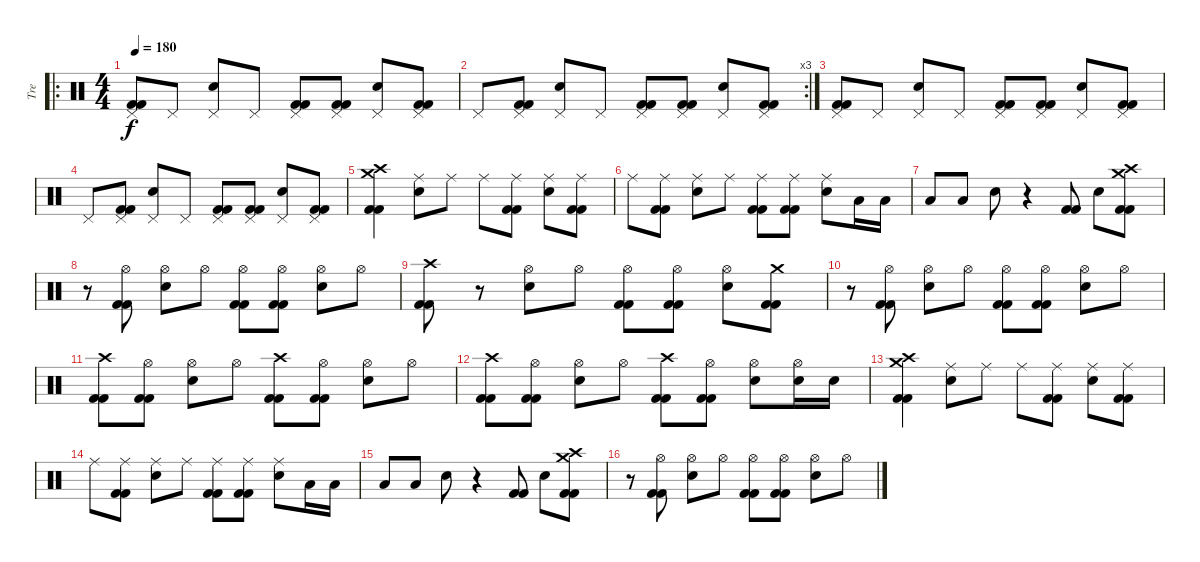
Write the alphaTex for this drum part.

\track ("Tre" "Tre") {instrument percussion}
\staff {score}
\articulation defaults
\ro
\ts (4 4)
\tempo 180
\clef neutral
\ks c
("Pedal Hi-Hat (hit)" "Kick (hit) 2" "Kick (hit) 2").8{dy f} "Pedal Hi-Hat (hit)".8 ("Pedal Hi-Hat (hit)" "Snare (hit) 2").8 "Pedal Hi-Hat (hit)".8 ("Pedal Hi-Hat (hit)" "Kick (hit) 2" "Kick (hit) 2").8 ("Pedal Hi-Hat (hit)" "Kick (hit) 2" "Kick (hit) 2").8 ("Pedal Hi-Hat (hit)" "Snare (hit) 2").8 ("Pedal Hi-Hat (hit)" "Kick (hit) 2" "Kick (hit) 2").8 |
\rc 3 "Pedal Hi-Hat (hit)".8
("Pedal Hi-Hat (hit)" "Kick (hit) 2" "Kick (hit) 2").8 ("Pedal Hi-Hat (hit)" "Snare (hit) 2").8 "Pedal Hi-Hat (hit)".8 ("Pedal Hi-Hat (hit)" "Kick (hit) 2" "Kick (hit) 2").8 ("Pedal Hi-Hat (hit)" "Kick (hit) 2" "Kick (hit) 2").8 ("Pedal Hi-Hat (hit)" "Snare (hit) 2").8 ("Pedal Hi-Hat (hit)" "Kick (hit) 2" "Kick (hit) 2").8 |
("Pedal Hi-Hat (hit)" "Kick (hit) 2" "Kick (hit) 2").8 "Pedal Hi-Hat (hit)".8 ("Pedal Hi-Hat (hit)" "Snare (hit) 2").8 "Pedal Hi-Hat (hit)".8 ("Pedal Hi-Hat (hit)" "Kick (hit) 2" "Kick (hit) 2").8 ("Pedal Hi-Hat (hit)" "Kick (hit) 2" "Kick (hit) 2").8 ("Pedal Hi-Hat (hit)" "Snare (hit) 2").8 ("Pedal Hi-Hat (hit)" "Kick (hit) 2" "Kick (hit) 2").8 |
"Pedal Hi-Hat (hit)".8 ("Pedal Hi-Hat (hit)" "Kick (hit) 2" "Kick (hit) 2").8 ("Pedal Hi-Hat (hit)" "Snare (hit) 2").8 "Pedal Hi-Hat (hit)".8 ("Pedal Hi-Hat (hit)" "Kick (hit) 2" "Kick (hit) 2").8 ("Pedal Hi-Hat (hit)" "Kick (hit) 2" "Kick (hit) 2").8 ("Pedal Hi-Hat (hit)" "Snare (hit) 2").8 ("Pedal Hi-Hat (hit)" "Kick (hit) 2" "Kick (hit) 2").8 |
("Crash high (hit)" "Crash medium (hit)" "Kick (hit) 2" "Kick (hit) 2").4 ("Ride (middle)" "Snare (hit) 2").8 "Ride (middle)".8 "Ride (middle)".8 ("Ride (middle)" "Kick (hit) 2" "Kick (hit) 2").8 ("Ride (middle)" "Snare (hit) 2").8 ("Ride (middle)" "Kick (hit) 2" "Kick (hit) 2").8 |
"Ride (middle)".8 ("Ride (middle)" "Kick (hit) 2" "Kick (hit) 2").8 ("Ride (middle)" "Snare (hit) 2").8 "Ride (middle)".8 ("Ride (middle)" "Kick (hit) 2" "Kick (hit) 2").8 ("Ride (middle)" "Kick (hit) 2" "Kick (hit) 2").8 ("Ride (middle)" "Snare (hit) 2").8 "Low Tom (hit)".16 "Low Tom (hit)".16 |
"Low Tom (hit)".8 "Low Tom (hit)".8 "Snare (hit) 2".8 r.4 ("Kick (hit) 2" "Kick (hit) 2").8 "Snare (hit) 2".8 ("Crash high (hit)" "Crash medium (hit)" "Kick (hit) 2" "Kick (hit) 2").8 |
r.8 ("Hi-Hat (open)" "Kick (hit) 2" "Kick (hit) 2").8 ("Hi-Hat (open)" "Snare (hit) 2").8 "Hi-Hat (open)".8 ("Hi-Hat (open)" "Kick (hit) 2" "Kick (hit) 2").8 ("Hi-Hat (open)" "Kick (hit) 2" "Kick (hit) 2").8 ("Hi-Hat (open)" "Snare (hit) 2").8 "Hi-Hat (open)".8 |
("Crash high (hit)" "Kick (hit) 2" "Kick (hit) 2").8 r.8 ("Hi-Hat (open)" "Snare (hit) 2").8 "Hi-Hat (open)".8 ("Hi-Hat (open)" "Kick (hit) 2" "Kick (hit) 2").8 ("Hi-Hat (open)" "Kick (hit) 2" "Kick (hit) 2").8 ("Hi-Hat (open)" "Snare (hit) 2").8 ("Crash medium (hit)" "Kick (hit) 2" "Kick (hit) 2").8 |
r.8 ("Hi-Hat (open)" "Kick (hit) 2" "Kick (hit) 2").8 ("Hi-Hat (open)" "Snare (hit) 2").8 "Hi-Hat (open)".8 ("Hi-Hat (open)" "Kick (hit) 2" "Kick (hit) 2").8 ("Hi-Hat (open)" "Kick (hit) 2" "Kick (hit) 2").8 ("Hi-Hat (open)" "Snare (hit) 2").8 "Hi-Hat (open)".8 |
("Crash high (hit)" "Kick (hit) 2" "Kick (hit) 2").8 ("Hi-Hat (open)" "Kick (hit) 2" "Kick (hit) 2").8 ("Hi-Hat (open)" "Snare (hit) 2").8 "Hi-Hat (open)".8 ("Crash high (hit)" "Kick (hit) 2" "Kick (hit) 2").8 ("Hi-Hat (open)" "Kick (hit) 2" "Kick (hit) 2").8 ("Hi-Hat (open)" "Snare (hit) 2").8 "Hi-Hat (open)".8 |
("Crash high (hit)" "Kick (hit) 2" "Kick (hit) 2").8 ("Hi-Hat (open)" "Kick (hit) 2" "Kick (hit) 2").8 ("Hi-Hat (open)" "Snare (hit) 2").8 "Hi-Hat (open)".8 ("Crash high (hit)" "Kick (hit) 2" "Kick (hit) 2").8 ("Hi-Hat (open)" "Kick (hit) 2" "Kick (hit) 2").8 ("Hi-Hat (open)" "Snare (hit) 2").8 ("Hi-Hat (open)" "Snare (hit) 2").16 "Snare (hit) 2".16 |
("Crash high (hit)" "Crash medium (hit)" "Kick (hit) 2" "Kick (hit) 2").4 ("Ride (middle)" "Snare (hit) 2").8 "Ride (middle)".8 "Ride (middle)".8 ("Ride (middle)" "Kick (hit) 2" "Kick (hit) 2").8 ("Ride (middle)" "Snare (hit) 2").8 ("Ride (middle)" "Kick (hit) 2" "Kick (hit) 2").8 |
"Ride (middle)".8 ("Ride (middle)" "Kick (hit) 2" "Kick (hit) 2").8 ("Ride (middle)" "Snare (hit) 2").8 "Ride (middle)".8 ("Ride (middle)" "Kick (hit) 2" "Kick (hit) 2").8 ("Ride (middle)" "Kick (hit) 2" "Kick (hit) 2").8 ("Ride (middle)" "Snare (hit) 2").8 "Low Tom (hit)".16 "Low Tom (hit)".16 |
"Low Tom (hit)".8 "Low Tom (hit)".8 "Snare (hit) 2".8 r.4 ("Kick (hit) 2" "Kick (hit) 2").8 "Snare (hit) 2".8 ("Crash high (hit)" "Crash medium (hit)" "Kick (hit) 2" "Kick (hit) 2").8 |
r.8 ("Hi-Hat (open)" "Kick (hit) 2" "Kick (hit) 2").8 ("Hi-Hat (open)" "Snare (hit) 2").8 "Hi-Hat (open)".8 ("Hi-Hat (open)" "Kick (hit) 2" "Kick (hit) 2").8 ("Hi-Hat (open)" "Kick (hit) 2" "Kick (hit) 2").8 ("Hi-Hat (open)" "Snare (hit) 2").8 "Hi-Hat (open)".8
